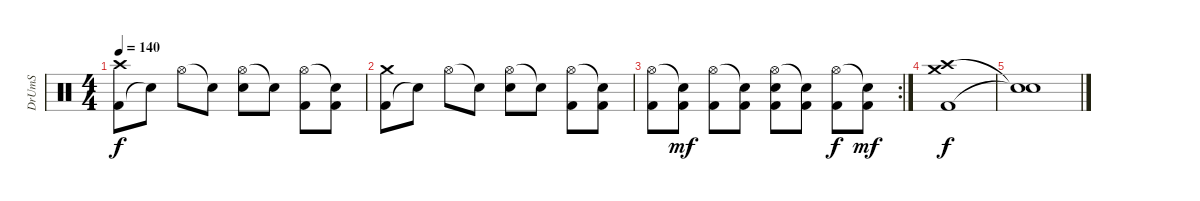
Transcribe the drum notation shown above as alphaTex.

\track ("DrUmS" "DrUmS") {instrument percussion}
\staff {score}
\articulation defaults
\ts (4 4)
\tempo 140
\clef neutral
\ks c
("Kick (hit) 2" "Crash high (hit)").8{dy f} "Snare (hit)"{t}.8 "Hi-Hat (open)".8 "Snare (hit)"{t}.8 ("Hi-Hat (open)" "Snare (hit) 2").8 "Snare (hit)"{t}.8 ("Kick (hit) 2" "Hi-Hat (open)").8 ("Kick (hit) 2" "Snare (hit)"{t}).8 |
("Kick (hit) 2" "Crash medium (hit)").8 "Snare (hit)"{t}.8 "Hi-Hat (open)".8 "Snare (hit)"{t}.8 ("Hi-Hat (open)" "Snare (hit) 2").8 "Snare (hit)"{t}.8 ("Kick (hit) 2" "Hi-Hat (open)").8 ("Kick (hit) 2" "Snare (hit)"{t}).8 |
\rc 2
("Kick (hit) 2" "Hi-Hat (open)").8 ("Kick (hit) 2" "Snare (hit)"{t}).8{dy mf} ("Kick (hit) 2" "Hi-Hat (open)").8 ("Kick (hit) 2" "Snare (hit)"{t}).8 ("Kick (hit) 2" "Hi-Hat (open)" "Snare (hit) 2").8 ("Kick (hit) 2" "Snare (hit)"{t}).8 ("Kick (hit) 2" "Hi-Hat (open)").8{dy f} ("Kick (hit) 2" "Snare (hit)"{t}).8{dy mf} |
("Kick (hit) 2" "Crash high (hit)" "Crash medium (hit)").1{dy f} |
("Snare (hit)"{t} "Snare (hit)"{t}).1
